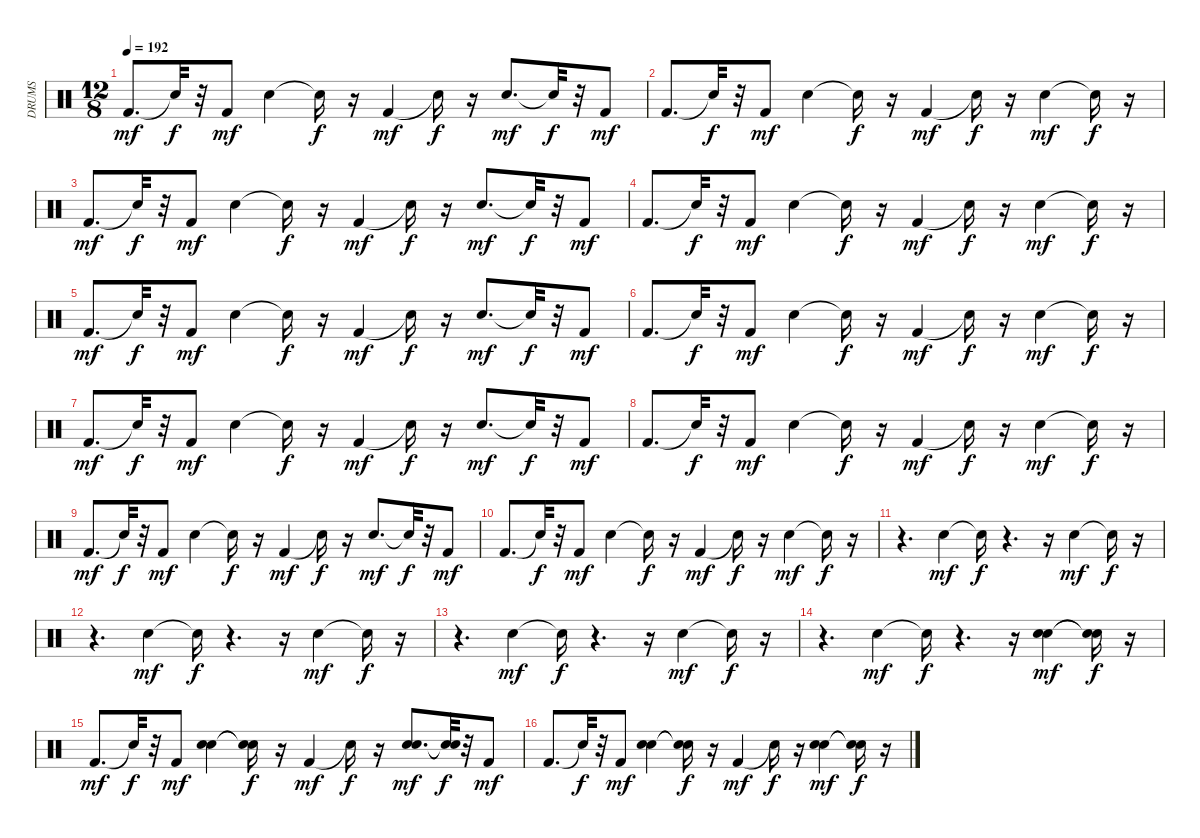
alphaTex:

\track ("DRUMS" "DRUMS") {instrument percussion}
\staff {score}
\articulation defaults
\ts (12 8)
\tempo 192
\clef neutral
\ks c "Kick (hit) 2".8{d dy mf} "Snare (hit)"{t}.32{dy f}
r.32 "Kick (hit) 2".8{dy mf} "Snare (hit) 2".4 "Snare (hit)"{t}.16{dy f} r.16 "Kick (hit) 2".4{dy mf} "Snare (hit)"{t}.16{dy f} r.16 "Snare (hit) 2".8{d dy mf} "Snare (hit)"{t}.32{dy f} r.32 "Kick (hit) 2".8{dy mf} |
"Kick (hit) 2".8{d} "Snare (hit)"{t}.32{dy f} r.32 "Kick (hit) 2".8{dy mf} "Snare (hit) 2".4 "Snare (hit)"{t}.16{dy f} r.16 "Kick (hit) 2".4{dy mf} "Snare (hit)"{t}.16{dy f} r.16 "Snare (hit) 2".4{dy mf} "Snare (hit)"{t}.16{dy f} r.16 |
"Kick (hit) 2".8{d dy mf} "Snare (hit)"{t}.32{dy f} r.32 "Kick (hit) 2".8{dy mf} "Snare (hit) 2".4 "Snare (hit)"{t}.16{dy f} r.16 "Kick (hit) 2".4{dy mf} "Snare (hit)"{t}.16{dy f} r.16 "Snare (hit) 2".8{d dy mf} "Snare (hit)"{t}.32{dy f} r.32 "Kick (hit) 2".8{dy mf} |
"Kick (hit) 2".8{d} "Snare (hit)"{t}.32{dy f} r.32 "Kick (hit) 2".8{dy mf} "Snare (hit) 2".4 "Snare (hit)"{t}.16{dy f} r.16 "Kick (hit) 2".4{dy mf} "Snare (hit)"{t}.16{dy f} r.16 "Snare (hit) 2".4{dy mf} "Snare (hit)"{t}.16{dy f} r.16 |
"Kick (hit) 2".8{d dy mf} "Snare (hit)"{t}.32{dy f} r.32 "Kick (hit) 2".8{dy mf} "Snare (hit) 2".4 "Snare (hit)"{t}.16{dy f} r.16 "Kick (hit) 2".4{dy mf} "Snare (hit)"{t}.16{dy f} r.16 "Snare (hit) 2".8{d dy mf} "Snare (hit)"{t}.32{dy f} r.32 "Kick (hit) 2".8{dy mf} |
"Kick (hit) 2".8{d} "Snare (hit)"{t}.32{dy f} r.32 "Kick (hit) 2".8{dy mf} "Snare (hit) 2".4 "Snare (hit)"{t}.16{dy f} r.16 "Kick (hit) 2".4{dy mf} "Snare (hit)"{t}.16{dy f} r.16 "Snare (hit) 2".4{dy mf} "Snare (hit)"{t}.16{dy f} r.16 |
"Kick (hit) 2".8{d dy mf} "Snare (hit)"{t}.32{dy f} r.32 "Kick (hit) 2".8{dy mf} "Snare (hit) 2".4 "Snare (hit)"{t}.16{dy f} r.16 "Kick (hit) 2".4{dy mf} "Snare (hit)"{t}.16{dy f} r.16 "Snare (hit) 2".8{d dy mf} "Snare (hit)"{t}.32{dy f} r.32 "Kick (hit) 2".8{dy mf} |
"Kick (hit) 2".8{d} "Snare (hit)"{t}.32{dy f} r.32 "Kick (hit) 2".8{dy mf} "Snare (hit) 2".4 "Snare (hit)"{t}.16{dy f} r.16 "Kick (hit) 2".4{dy mf} "Snare (hit)"{t}.16{dy f} r.16 "Snare (hit) 2".4{dy mf} "Snare (hit)"{t}.16{dy f} r.16 |
"Kick (hit) 2".8{d dy mf} "Snare (hit)"{t}.32{dy f} r.32 "Kick (hit) 2".8{dy mf} "Snare (hit) 2".4 "Snare (hit)"{t}.16{dy f} r.16 "Kick (hit) 2".4{dy mf} "Snare (hit)"{t}.16{dy f} r.16 "Snare (hit) 2".8{d dy mf} "Snare (hit)"{t}.32{dy f} r.32 "Kick (hit) 2".8{dy mf} |
"Kick (hit) 2".8{d} "Snare (hit)"{t}.32{dy f} r.32 "Kick (hit) 2".8{dy mf} "Snare (hit) 2".4 "Snare (hit)"{t}.16{dy f} r.16 "Kick (hit) 2".4{dy mf} "Snare (hit)"{t}.16{dy f} r.16 "Snare (hit) 2".4{dy mf} "Snare (hit)"{t}.16{dy f} r.16 |
r.4{d} "Hand Clap (hit)".4{dy mf} "Snare (hit)"{t}.16{dy f} r.4{d} r.16 "Hand Clap (hit)".4{dy mf} "Snare (hit)"{t}.16{dy f} r.16 |
r.4{d} "Hand Clap (hit)".4{dy mf} "Snare (hit)"{t}.16{dy f} r.4{d} r.16 "Hand Clap (hit)".4{dy mf} "Snare (hit)"{t}.16{dy f} r.16 |
r.4{d} "Hand Clap (hit)".4{dy mf} "Snare (hit)"{t}.16{dy f} r.4{d} r.16 "Hand Clap (hit)".4{dy mf} "Snare (hit)"{t}.16{dy f} r.16 |
r.4{d} "Hand Clap (hit)".4{dy mf} "Snare (hit)"{t}.16{dy f} r.4{d} r.16 ("Snare (hit) 2" "Hand Clap (hit)").4{dy mf} ("Snare (hit)"{t} "Snare (hit)"{t}).16{dy f} r.16 |
"Kick (hit) 2".8{d dy mf} "Snare (hit)"{t}.32{dy f} r.32 "Kick (hit) 2".8{dy mf} ("Snare (hit) 2" "Hand Clap (hit)").4 ("Snare (hit)"{t} "Snare (hit)"{t}).16{dy f} r.16 "Kick (hit) 2".4{dy mf} "Snare (hit)"{t}.16{dy f} r.16 ("Snare (hit) 2" "Hand Clap (hit)").8{d dy mf} ("Snare (hit)"{t} "Snare (hit)"{t}).32{dy f} r.32 "Kick (hit) 2".8{dy mf} |
"Kick (hit) 2".8{d} "Snare (hit)"{t}.32{dy f} r.32 "Kick (hit) 2".8{dy mf} ("Snare (hit) 2" "Hand Clap (hit)").4 ("Snare (hit)"{t} "Snare (hit)"{t}).16{dy f} r.16 "Kick (hit) 2".4{dy mf} "Snare (hit)"{t}.16{dy f} r.16 ("Snare (hit) 2" "Hand Clap (hit)").4{dy mf} ("Snare (hit)"{t} "Snare (hit)"{t}).16{dy f} r.16
